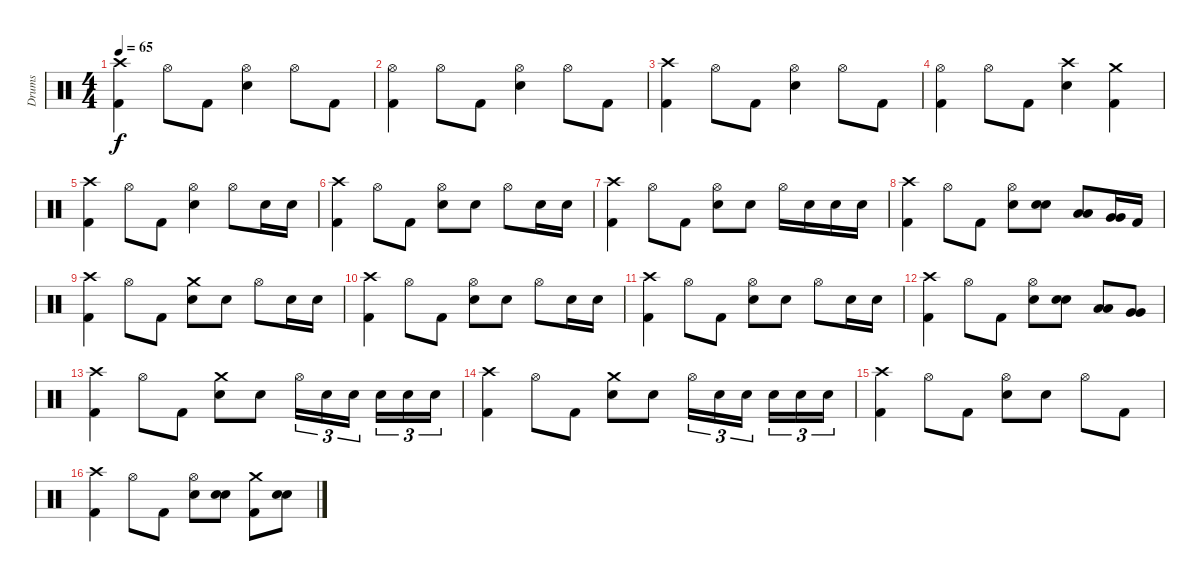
\track ("Drums" "Drums") {instrument percussion}
\staff {score}
\articulation defaults
\ts (4 4)
\tempo 65
\clef neutral
\ks c
("Crash high (hit)" "Kick (hit) 2").4{dy f} "Hi-Hat (open)".8 "Kick (hit) 2".8 ("Hi-Hat (open)" "Electric Snare (hit)").4 "Hi-Hat (open)".8 "Kick (hit) 2".8 |
("Hi-Hat (open)" "Kick (hit) 2").4 "Hi-Hat (open)".8 "Kick (hit) 2".8 ("Hi-Hat (open)" "Electric Snare (hit)").4 "Hi-Hat (open)".8 "Kick (hit) 2".8 |
("Crash high (hit)" "Kick (hit) 2").4 "Hi-Hat (open)".8 "Kick (hit) 2".8 ("Hi-Hat (open)" "Electric Snare (hit)").4 "Hi-Hat (open)".8 "Kick (hit) 2".8 |
("Hi-Hat (open)" "Kick (hit) 2").4 "Hi-Hat (open)".8 "Kick (hit) 2".8 ("Crash high (hit)" "Electric Snare (hit)").4 ("Crash medium (hit)" "Kick (hit) 2").4 |
("Crash high (hit)" "Kick (hit) 2").4 "Hi-Hat (open)".8 "Kick (hit) 2".8 ("Hi-Hat (open)" "Electric Snare (hit)").4 "Hi-Hat (open)".8 "Electric Snare (hit)".16 "Electric Snare (hit)".16 |
("Crash high (hit)" "Kick (hit) 2").4 "Hi-Hat (open)".8 "Kick (hit) 2".8 ("Hi-Hat (open)" "Electric Snare (hit)").8 "Electric Snare (hit)".8 "Hi-Hat (open)".8 "Electric Snare (hit)".16 "Electric Snare (hit)".16 |
("Crash high (hit)" "Kick (hit) 2").4 "Hi-Hat (open)".8 "Kick (hit) 2".8 ("Hi-Hat (open)" "Electric Snare (hit)").8 "Electric Snare (hit)".8 "Hi-Hat (open)".16 "Electric Snare (hit)".16 "Electric Snare (hit)".16 "Electric Snare (hit)".16 |
("Crash high (hit)" "Kick (hit) 2").4 "Hi-Hat (open)".8 "Kick (hit) 2".8 ("Hi-Hat (open)" "Electric Snare (hit)").8 ("Electric Snare (hit)" "Electric Snare (hit)").8{bu 60} ("Low Tom (hit)" "Low Tom (hit)").8{bu 60} ("Very Low Tom (hit)" "Very Low Tom (hit)").16{bu 60} "Kick (hit) 2".16 |
("Crash high (hit)" "Kick (hit) 2").4 "Hi-Hat (open)".8 "Kick (hit) 2".8 ("Crash medium (hit)" "Electric Snare (hit)").8 "Electric Snare (hit)".8 "Hi-Hat (open)".8 "Electric Snare (hit)".16 "Electric Snare (hit)".16 |
("Crash high (hit)" "Kick (hit) 2").4 "Hi-Hat (open)".8 "Kick (hit) 2".8 ("Hi-Hat (open)" "Electric Snare (hit)").8 "Electric Snare (hit)".8 "Hi-Hat (open)".8 "Electric Snare (hit)".16 "Electric Snare (hit)".16 |
("Crash high (hit)" "Kick (hit) 2").4 "Hi-Hat (open)".8 "Kick (hit) 2".8 ("Hi-Hat (open)" "Electric Snare (hit)").8 "Electric Snare (hit)".8 "Hi-Hat (open)".8 "Electric Snare (hit)".16 "Electric Snare (hit)".16 |
("Crash high (hit)" "Kick (hit) 2").4 "Hi-Hat (open)".8 "Kick (hit) 2".8 ("Hi-Hat (open)" "Electric Snare (hit)").8 ("Electric Snare (hit)" "Electric Snare (hit)").8{bu 60} ("Low Tom (hit)" "Low Tom (hit)").8{bu 60} ("Very Low Tom (hit)" "Very Low Tom (hit)").8{bu 60} |
("Crash high (hit)" "Kick (hit) 2").4 "Hi-Hat (open)".8 "Kick (hit) 2".8 ("Crash medium (hit)" "Electric Snare (hit)").8 "Electric Snare (hit)".8 "Hi-Hat (open)".16{tu (3 2)} "Electric Snare (hit)".16{tu (3 2)} "Electric Snare (hit)".16{tu (3 2)} "Electric Snare (hit)".16{tu (3 2)} "Electric Snare (hit)".16{tu (3 2)} "Electric Snare (hit)".16{tu (3 2)} |
("Crash high (hit)" "Kick (hit) 2").4 "Hi-Hat (open)".8 "Kick (hit) 2".8 ("Crash medium (hit)" "Electric Snare (hit)").8 "Electric Snare (hit)".8 "Hi-Hat (open)".16{tu (3 2)} "Electric Snare (hit)".16{tu (3 2)} "Electric Snare (hit)".16{tu (3 2)} "Electric Snare (hit)".16{tu (3 2)} "Electric Snare (hit)".16{tu (3 2)} "Electric Snare (hit)".16{tu (3 2)} |
("Crash high (hit)" "Kick (hit) 2").4 "Hi-Hat (open)".8 "Kick (hit) 2".8 ("Hi-Hat (open)" "Electric Snare (hit)").8 "Electric Snare (hit)".8 "Hi-Hat (open)".8 "Kick (hit) 2".8 |
("Crash high (hit)" "Kick (hit) 2").4 "Hi-Hat (open)".8 "Kick (hit) 2".8 ("Hi-Hat (open)" "Electric Snare (hit)").8 ("Electric Snare (hit)" "Electric Snare (hit)").8{bu 60} ("Crash medium (hit)" "Kick (hit) 2").8 ("Electric Snare (hit)" "Electric Snare (hit)").8{bu 60}
